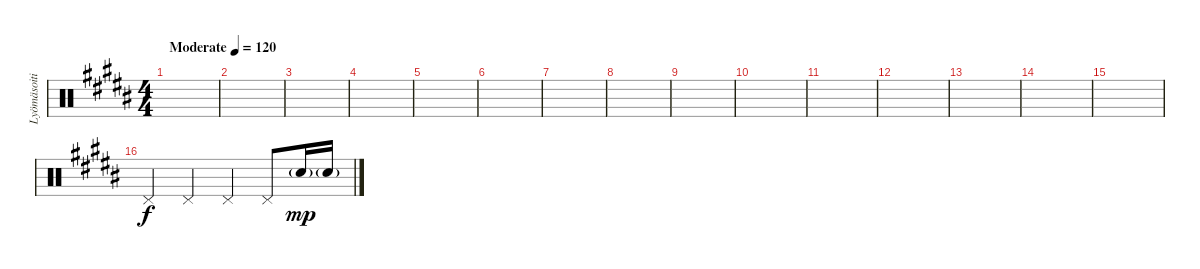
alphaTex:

\track ("Lyömäsoitin" "Lyömäsoiti") {instrument percussion}
\staff {score}
\articulation defaults
\ts (4 4)
\tempo (120 "Moderate")
\clef neutral
\ks g#minor
|
|
|
|
|
|
|
|
|
|
|
|
|
|
|
"Pedal Hi-Hat (hit)".4 "Pedal Hi-Hat (hit)".4 "Pedal Hi-Hat (hit)".4 "Pedal Hi-Hat (hit)".8 "Electric Snare (hit)"{g}.16{dy mp} "Electric Snare (hit)"{g}.16
